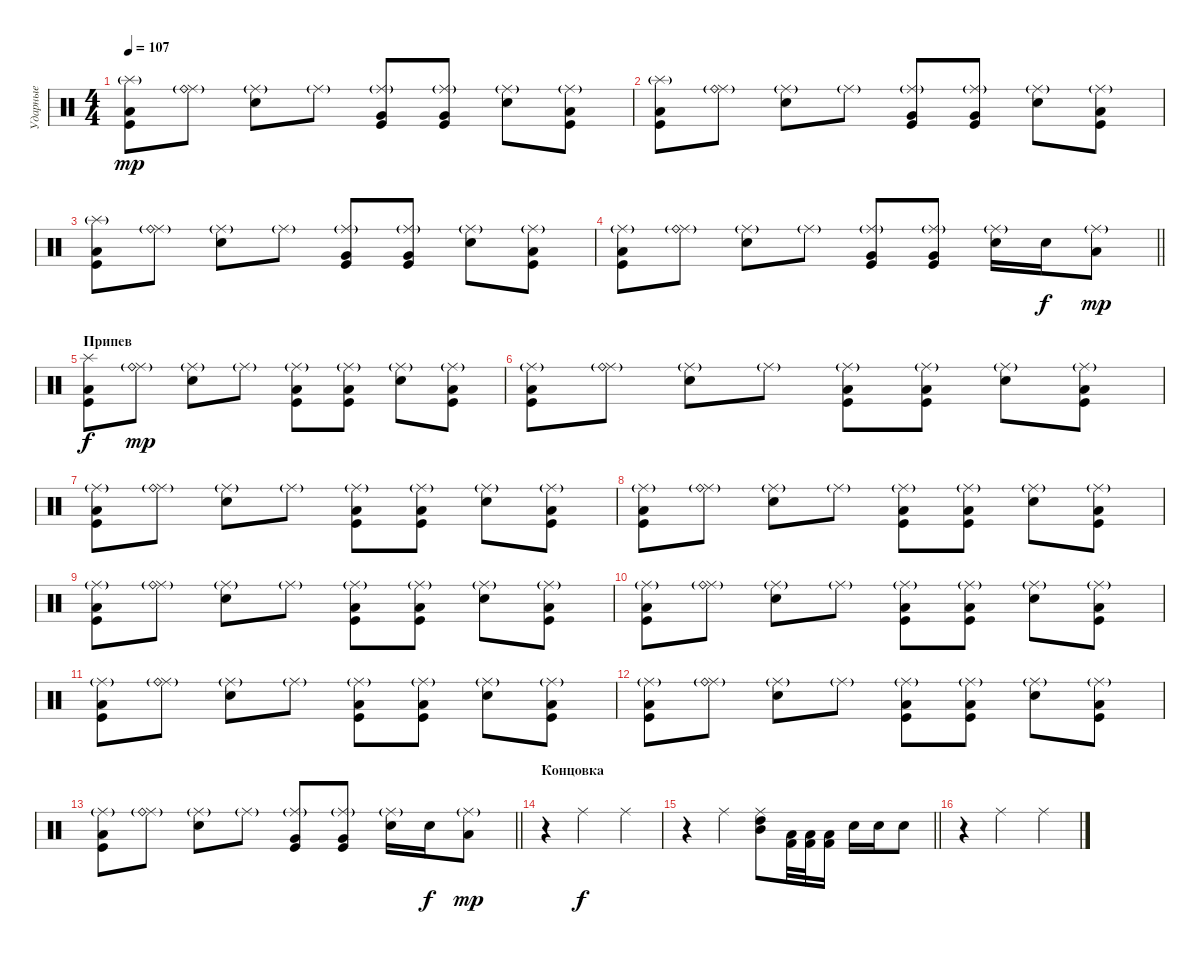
\track ("Ударные" "Ударные") {instrument percussion}
\staff {score}
\articulation defaults
\ts (4 4)
\tempo 107
\clef neutral
\ks c
("Splash (hit)"{g} "Kick (hit)" "Low Tom (hit)").8{dy mp} ("Ride (middle)"{g} "Ride (bell)").8 ("Ride (middle)"{g} "Snare (hit) 2").8 "Ride (middle)"{g}.8 ("Ride (middle)"{g} "Kick (hit)" "Very Low Tom (hit)").8 ("Ride (middle)"{g} "Kick (hit)" "Very Low Tom (hit)").8 ("Ride (middle)"{g} "Snare (hit) 2").8 ("Ride (middle)"{g} "Kick (hit)" "Low Tom (hit)").8 |
("Splash (hit)"{g} "Kick (hit)" "Low Tom (hit)").8 ("Ride (middle)"{g} "Ride (bell)").8 ("Ride (middle)"{g} "Snare (hit) 2").8 "Ride (middle)"{g}.8 ("Ride (middle)"{g} "Kick (hit)" "Very Low Tom (hit)").8 ("Ride (middle)"{g} "Kick (hit)" "Very Low Tom (hit)").8 ("Ride (middle)"{g} "Snare (hit) 2").8 ("Ride (middle)"{g} "Kick (hit)" "Low Tom (hit)").8 |
("Splash (hit)"{g} "Kick (hit)" "Low Tom (hit)").8 ("Ride (middle)"{g} "Ride (bell)").8 ("Ride (middle)"{g} "Snare (hit) 2").8 "Ride (middle)"{g}.8 ("Ride (middle)"{g} "Kick (hit)" "Very Low Tom (hit)").8 ("Ride (middle)"{g} "Kick (hit)" "Very Low Tom (hit)").8 ("Ride (middle)"{g} "Snare (hit) 2").8 ("Ride (middle)"{g} "Kick (hit)" "Low Tom (hit)").8 |
\barLineRight lightlight
("Ride (middle)"{g} "Kick (hit)" "Low Tom (hit)").8 ("Ride (middle)"{g} "Ride (bell)").8 ("Ride (middle)"{g} "Snare (hit) 2").8 "Ride (middle)"{g}.8 ("Ride (middle)"{g} "Kick (hit)" "Very Low Tom (hit)").8 ("Ride (middle)"{g} "Kick (hit)" "Very Low Tom (hit)").8 ("Ride (middle)"{g} "Snare (hit) 2").16 "Snare (hit) 2".16{dy f} ("Ride (middle)"{g} "Low Tom (hit)").8{dy mp} |
\section ("" "Припев")
("Splash (hit)" "Kick (hit)" "Low Tom (hit)").8{dy f} ("Ride (middle)"{g} "Ride (bell)").8{dy mp} ("Ride (middle)"{g} "Snare (hit) 2").8 "Ride (middle)"{g}.8 ("Ride (middle)"{g} "Kick (hit)" "Low Tom (hit)").8 ("Ride (middle)"{g} "Kick (hit)" "Low Tom (hit)").8 ("Ride (middle)"{g} "Snare (hit) 2").8 ("Ride (middle)"{g} "Kick (hit)" "Low Tom (hit)").8 |
("Ride (middle)"{g} "Kick (hit)" "Low Tom (hit)").8 ("Ride (middle)"{g} "Ride (bell)").8 ("Ride (middle)"{g} "Snare (hit) 2").8 "Ride (middle)"{g}.8 ("Ride (middle)"{g} "Kick (hit)" "Low Tom (hit)").8 ("Ride (middle)"{g} "Kick (hit)" "Low Tom (hit)").8 ("Ride (middle)"{g} "Snare (hit) 2").8 ("Ride (middle)"{g} "Kick (hit)" "Low Tom (hit)").8 |
("Ride (middle)"{g} "Kick (hit)" "Low Tom (hit)").8 ("Ride (middle)"{g} "Ride (bell)").8 ("Ride (middle)"{g} "Snare (hit) 2").8 "Ride (middle)"{g}.8 ("Ride (middle)"{g} "Kick (hit)" "Low Tom (hit)").8 ("Ride (middle)"{g} "Kick (hit)" "Low Tom (hit)").8 ("Ride (middle)"{g} "Snare (hit) 2").8 ("Ride (middle)"{g} "Kick (hit)" "Low Tom (hit)").8 |
("Ride (middle)"{g} "Kick (hit)" "Low Tom (hit)").8 ("Ride (middle)"{g} "Ride (bell)").8 ("Ride (middle)"{g} "Snare (hit) 2").8 "Ride (middle)"{g}.8 ("Ride (middle)"{g} "Kick (hit)" "Low Tom (hit)").8 ("Ride (middle)"{g} "Kick (hit)" "Low Tom (hit)").8 ("Ride (middle)"{g} "Snare (hit) 2").8 ("Ride (middle)"{g} "Kick (hit)" "Low Tom (hit)").8 |
("Ride (middle)"{g} "Kick (hit)" "Low Tom (hit)").8 ("Ride (middle)"{g} "Ride (bell)").8 ("Ride (middle)"{g} "Snare (hit) 2").8 "Ride (middle)"{g}.8 ("Ride (middle)"{g} "Kick (hit)" "Low Tom (hit)").8 ("Ride (middle)"{g} "Kick (hit)" "Low Tom (hit)").8 ("Ride (middle)"{g} "Snare (hit) 2").8 ("Ride (middle)"{g} "Kick (hit)" "Low Tom (hit)").8 |
("Ride (middle)"{g} "Kick (hit)" "Low Tom (hit)").8 ("Ride (middle)"{g} "Ride (bell)").8 ("Ride (middle)"{g} "Snare (hit) 2").8 "Ride (middle)"{g}.8 ("Ride (middle)"{g} "Kick (hit)" "Low Tom (hit)").8 ("Ride (middle)"{g} "Kick (hit)" "Low Tom (hit)").8 ("Ride (middle)"{g} "Snare (hit) 2").8 ("Ride (middle)"{g} "Kick (hit)" "Low Tom (hit)").8 |
("Ride (middle)"{g} "Kick (hit)" "Low Tom (hit)").8 ("Ride (middle)"{g} "Ride (bell)").8 ("Ride (middle)"{g} "Snare (hit) 2").8 "Ride (middle)"{g}.8 ("Ride (middle)"{g} "Kick (hit)" "Low Tom (hit)").8 ("Ride (middle)"{g} "Kick (hit)" "Low Tom (hit)").8 ("Ride (middle)"{g} "Snare (hit) 2").8 ("Ride (middle)"{g} "Kick (hit)" "Low Tom (hit)").8 |
("Ride (middle)"{g} "Kick (hit)" "Low Tom (hit)").8 ("Ride (middle)"{g} "Ride (bell)").8 ("Ride (middle)"{g} "Snare (hit) 2").8 "Ride (middle)"{g}.8 ("Ride (middle)"{g} "Kick (hit)" "Low Tom (hit)").8 ("Ride (middle)"{g} "Kick (hit)" "Low Tom (hit)").8 ("Ride (middle)"{g} "Snare (hit) 2").8 ("Ride (middle)"{g} "Kick (hit)" "Low Tom (hit)").8 |
\barLineRight lightlight
("Ride (middle)"{g} "Kick (hit)" "Low Tom (hit)").8 ("Ride (middle)"{g} "Ride (bell)").8 ("Ride (middle)"{g} "Snare (hit) 2").8 "Ride (middle)"{g}.8 ("Ride (middle)"{g} "Kick (hit)" "Very Low Tom (hit)").8 ("Ride (middle)"{g} "Kick (hit)" "Very Low Tom (hit)").8 ("Ride (middle)"{g} "Snare (hit) 2").16 "Snare (hit) 2".16{dy f} ("Ride (middle)"{g} "Low Tom (hit)").8{dy mp} |
\section ("" "Концовка")
r.4 "Ride (middle)".2{dy f} "Ride (middle)".4 |
\barLineRight lightlight
r.4 "Ride (middle)".4 ("Ride (middle)" "Mid Tom (hit)" "High Tom (hit)").8 ("Kick (hit) 2" "Low Floor Tom (hit)").32 ("Kick (hit) 2" "Low Floor Tom (hit)").32 ("Kick (hit) 2" "Low Floor Tom (hit)").16 "Snare (hit) 2".16 "Snare (hit) 2".16 "Snare (hit) 2".8 |
r.4 "Ride (middle)".2 "Ride (middle)".4
